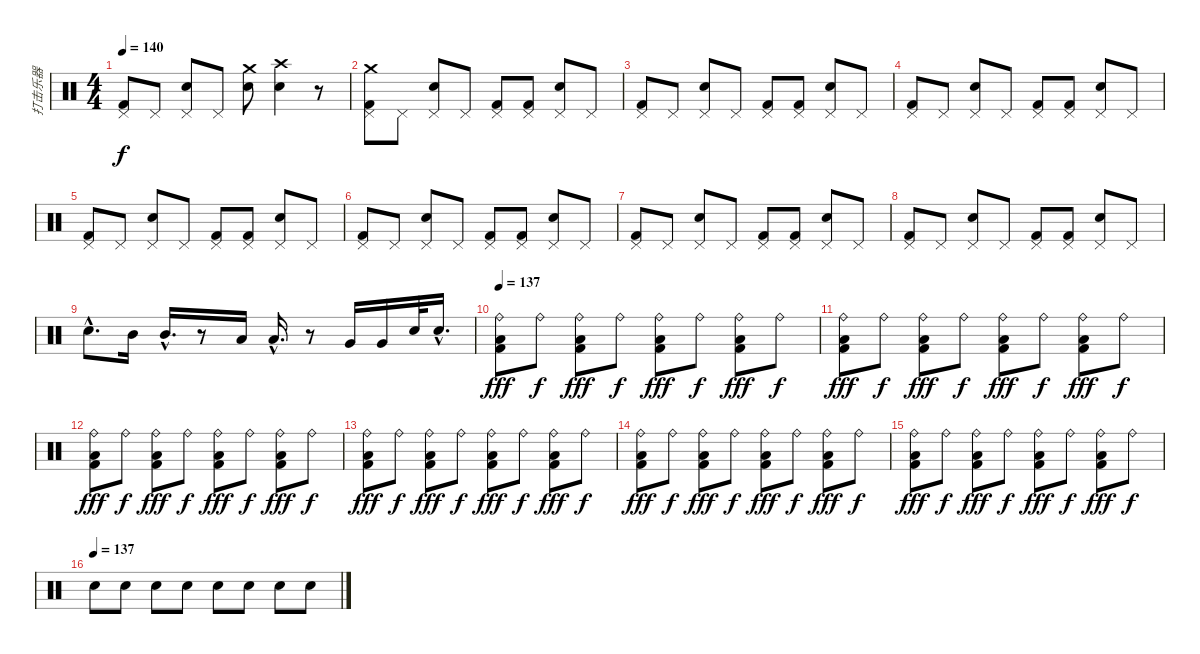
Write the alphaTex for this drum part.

\track ("打击乐器" "打击乐器") {instrument percussion}
\staff {score}
\articulation defaults
\ts (4 4)
\tempo 140
\clef neutral
\ks c
("Pedal Hi-Hat (hit)" "Kick (hit) 2").8{dy f} "Pedal Hi-Hat (hit)".8 ("Snare (hit) 2" "Pedal Hi-Hat (hit)").8 "Pedal Hi-Hat (hit)".8 ("Crash medium (hit)" "Snare (hit) 2").8 ("Crash high (hit)" "Snare (hit) 2").4 r.8 |
("Crash medium (hit)" "Pedal Hi-Hat (hit)" "Kick (hit) 2").8 "Pedal Hi-Hat (hit)".8 ("Snare (hit) 2" "Pedal Hi-Hat (hit)").8 "Pedal Hi-Hat (hit)".8 ("Pedal Hi-Hat (hit)" "Kick (hit) 2").8 ("Pedal Hi-Hat (hit)" "Kick (hit) 2").8 ("Snare (hit) 2" "Pedal Hi-Hat (hit)").8 "Pedal Hi-Hat (hit)".8 |
("Pedal Hi-Hat (hit)" "Kick (hit) 2").8 "Pedal Hi-Hat (hit)".8 ("Snare (hit) 2" "Pedal Hi-Hat (hit)").8 "Pedal Hi-Hat (hit)".8 ("Pedal Hi-Hat (hit)" "Kick (hit) 2").8 ("Pedal Hi-Hat (hit)" "Kick (hit) 2").8 ("Snare (hit) 2" "Pedal Hi-Hat (hit)").8 "Pedal Hi-Hat (hit)".8 |
("Pedal Hi-Hat (hit)" "Kick (hit) 2").8 "Pedal Hi-Hat (hit)".8 ("Snare (hit) 2" "Pedal Hi-Hat (hit)").8 "Pedal Hi-Hat (hit)".8 ("Pedal Hi-Hat (hit)" "Kick (hit) 2").8 ("Pedal Hi-Hat (hit)" "Kick (hit) 2").8 ("Snare (hit) 2" "Pedal Hi-Hat (hit)").8 "Pedal Hi-Hat (hit)".8 |
("Pedal Hi-Hat (hit)" "Kick (hit) 2").8 "Pedal Hi-Hat (hit)".8 ("Snare (hit) 2" "Pedal Hi-Hat (hit)").8 "Pedal Hi-Hat (hit)".8 ("Pedal Hi-Hat (hit)" "Kick (hit) 2").8 ("Pedal Hi-Hat (hit)" "Kick (hit) 2").8 ("Snare (hit) 2" "Pedal Hi-Hat (hit)").8 "Pedal Hi-Hat (hit)".8 |
("Pedal Hi-Hat (hit)" "Kick (hit) 2").8 "Pedal Hi-Hat (hit)".8 ("Snare (hit) 2" "Pedal Hi-Hat (hit)").8 "Pedal Hi-Hat (hit)".8 ("Pedal Hi-Hat (hit)" "Kick (hit) 2").8 ("Pedal Hi-Hat (hit)" "Kick (hit) 2").8 ("Snare (hit) 2" "Pedal Hi-Hat (hit)").8 "Pedal Hi-Hat (hit)".8 |
("Pedal Hi-Hat (hit)" "Kick (hit) 2").8 "Pedal Hi-Hat (hit)".8 ("Snare (hit) 2" "Pedal Hi-Hat (hit)").8 "Pedal Hi-Hat (hit)".8 ("Pedal Hi-Hat (hit)" "Kick (hit) 2").8 ("Pedal Hi-Hat (hit)" "Kick (hit) 2").8 ("Snare (hit) 2" "Pedal Hi-Hat (hit)").8 "Pedal Hi-Hat (hit)".8 |
("Pedal Hi-Hat (hit)" "Kick (hit) 2").8 "Pedal Hi-Hat (hit)".8 ("Snare (hit) 2" "Pedal Hi-Hat (hit)").8 "Pedal Hi-Hat (hit)".8 ("Pedal Hi-Hat (hit)" "Kick (hit) 2").8 ("Pedal Hi-Hat (hit)" "Kick (hit) 2").8 ("Snare (hit) 2" "Pedal Hi-Hat (hit)").8 "Pedal Hi-Hat (hit)".8 |
"Snare (hit) 2"{hac}.8{d} "Mid Tom (hit)".16 "Mid Tom (hit)"{hac}.16{d} r.8 "Low Tom (hit)".16 "Low Tom (hit)"{hac}.16{d} r.8 "Very Low Tom (hit)".16 "Very Low Tom (hit)".16 "Electric Snare (hit)".32 "Snare (hit) 2"{hac}.16{d} |
\tempo 137
("Ride (bell)" "Kick (hit) 2" "Low Tom (hit)").8{dy fff} "Ride (bell)".8{dy f} ("Ride (bell)" "Kick (hit) 2" "Low Tom (hit)").8{dy fff} "Ride (bell)".8{dy f} ("Ride (bell)" "Kick (hit) 2" "Low Tom (hit)").8{dy fff} "Ride (bell)".8{dy f} ("Ride (bell)" "Kick (hit) 2" "Low Tom (hit)").8{dy fff} "Ride (bell)".8{dy f} |
("Ride (bell)" "Kick (hit) 2" "Low Tom (hit)").8{dy fff} "Ride (bell)".8{dy f} ("Ride (bell)" "Kick (hit) 2" "Low Tom (hit)").8{dy fff} "Ride (bell)".8{dy f} ("Ride (bell)" "Kick (hit) 2" "Low Tom (hit)").8{dy fff} "Ride (bell)".8{dy f} ("Ride (bell)" "Kick (hit) 2" "Low Tom (hit)").8{dy fff} "Ride (bell)".8{dy f} |
("Ride (bell)" "Kick (hit) 2" "Low Tom (hit)").8{dy fff} "Ride (bell)".8{dy f} ("Ride (bell)" "Kick (hit) 2" "Low Tom (hit)").8{dy fff} "Ride (bell)".8{dy f} ("Ride (bell)" "Kick (hit) 2" "Low Tom (hit)").8{dy fff} "Ride (bell)".8{dy f} ("Ride (bell)" "Kick (hit) 2" "Low Tom (hit)").8{dy fff} "Ride (bell)".8{dy f} |
("Ride (bell)" "Kick (hit) 2" "Low Tom (hit)").8{dy fff} "Ride (bell)".8{dy f} ("Ride (bell)" "Kick (hit) 2" "Low Tom (hit)").8{dy fff} "Ride (bell)".8{dy f} ("Ride (bell)" "Kick (hit) 2" "Low Tom (hit)").8{dy fff} "Ride (bell)".8{dy f} ("Ride (bell)" "Kick (hit) 2" "Low Tom (hit)").8{dy fff} "Ride (bell)".8{dy f} |
("Ride (bell)" "Kick (hit) 2" "Low Tom (hit)").8{dy fff} "Ride (bell)".8{dy f} ("Ride (bell)" "Kick (hit) 2" "Low Tom (hit)").8{dy fff} "Ride (bell)".8{dy f} ("Ride (bell)" "Kick (hit) 2" "Low Tom (hit)").8{dy fff} "Ride (bell)".8{dy f} ("Ride (bell)" "Kick (hit) 2" "Low Tom (hit)").8{dy fff} "Ride (bell)".8{dy f} |
("Ride (bell)" "Kick (hit) 2" "Low Tom (hit)").8{dy fff} "Ride (bell)".8{dy f} ("Ride (bell)" "Kick (hit) 2" "Low Tom (hit)").8{dy fff} "Ride (bell)".8{dy f} ("Ride (bell)" "Kick (hit) 2" "Low Tom (hit)").8{dy fff} "Ride (bell)".8{dy f} ("Ride (bell)" "Kick (hit) 2" "Low Tom (hit)").8{dy fff} "Ride (bell)".8{dy f} |
\tempo (137)
"Snare (hit) 2".8 "Snare (hit) 2".8 "Snare (hit) 2".8 "Snare (hit) 2".8 "Snare (hit) 2".8 "Snare (hit) 2".8 "Snare (hit) 2".8 "Snare (hit) 2".8
